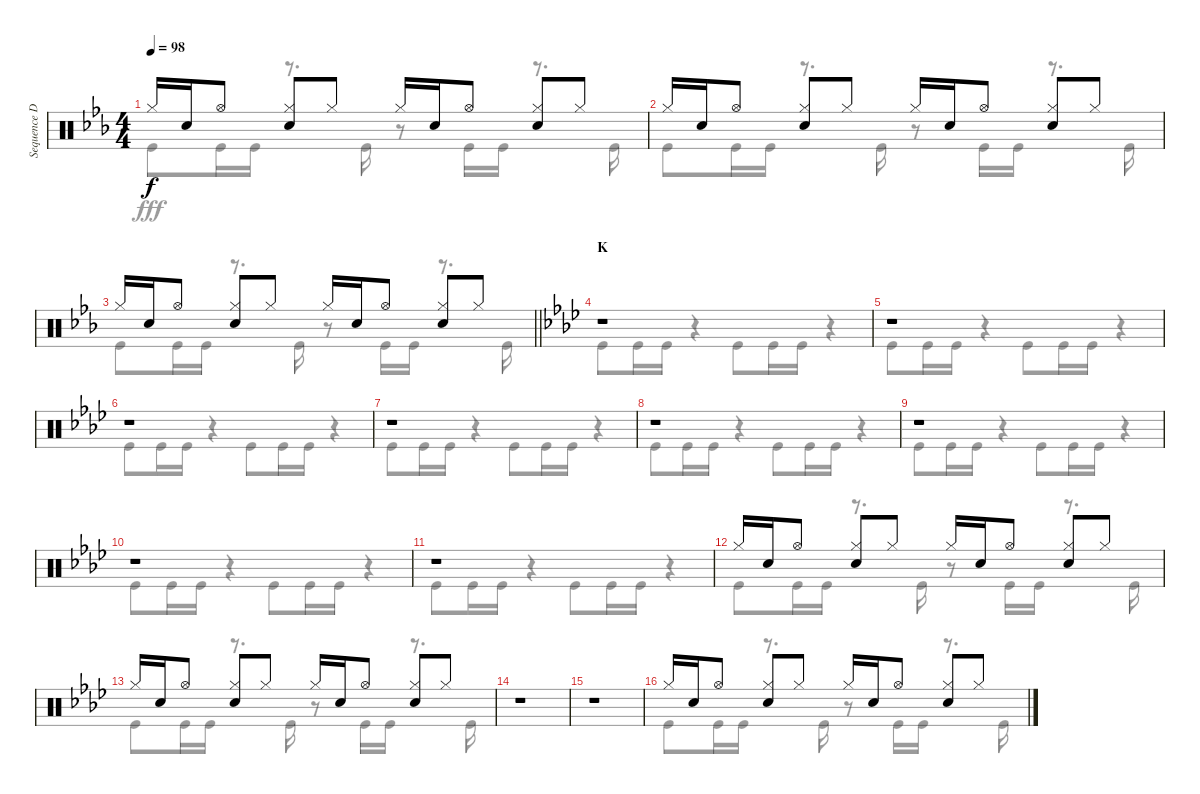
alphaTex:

\track ("Sequence Drums II" "Sequence D") {instrument percussion}
\staff {score}
\articulation defaults
\voice
\ts (4 4)
\tempo 98
\clef neutral
\ks eb "Hi-Hat (closed)".16{dy f} "Snare (hit) 2".16 "Hi-Hat (open)".8
("Hi-Hat (closed)" "Snare (hit) 2").8 "Hi-Hat (closed)".8 "Hi-Hat (closed)".16 "Snare (hit) 2".16 "Hi-Hat (open)".8 ("Hi-Hat (closed)" "Snare (hit) 2").8 "Hi-Hat (closed)".8 |
"Hi-Hat (closed)".16 "Snare (hit) 2".16 "Hi-Hat (open)".8 ("Hi-Hat (closed)" "Snare (hit) 2").8 "Hi-Hat (closed)".8 "Hi-Hat (closed)".16 "Snare (hit) 2".16 "Hi-Hat (open)".8 ("Hi-Hat (closed)" "Snare (hit) 2").8 "Hi-Hat (closed)".8 |
\barLineRight lightlight "Hi-Hat (closed)".16 "Snare (hit) 2".16 "Hi-Hat (open)".8
("Hi-Hat (closed)" "Snare (hit) 2").8 "Hi-Hat (closed)".8 "Hi-Hat (closed)".16 "Snare (hit) 2".16 "Hi-Hat (open)".8 ("Hi-Hat (closed)" "Snare (hit) 2").8 "Hi-Hat (closed)".8 |
\section ("" "K")
\ks ab
r.1 |
r.1 |
r.1 |
r.1 |
r.1 |
r.1 |
r.1 |
r.1 |
"Hi-Hat (closed)".16 "Snare (hit) 2".16 "Hi-Hat (open)".8 ("Hi-Hat (closed)" "Snare (hit) 2").8 "Hi-Hat (closed)".8 "Hi-Hat (closed)".16 "Snare (hit) 2".16 "Hi-Hat (open)".8 ("Hi-Hat (closed)" "Snare (hit) 2").8 "Hi-Hat (closed)".8 |
"Hi-Hat (closed)".16 "Snare (hit) 2".16 "Hi-Hat (open)".8 ("Hi-Hat (closed)" "Snare (hit) 2").8 "Hi-Hat (closed)".8 "Hi-Hat (closed)".16 "Snare (hit) 2".16 "Hi-Hat (open)".8 ("Hi-Hat (closed)" "Snare (hit) 2").8 "Hi-Hat (closed)".8 |
r.1 |
r.1 |
"Hi-Hat (closed)".16 "Snare (hit) 2".16 "Hi-Hat (open)".8 ("Hi-Hat (closed)" "Snare (hit) 2").8 "Hi-Hat (closed)".8 "Hi-Hat (closed)".16 "Snare (hit) 2".16 "Hi-Hat (open)".8 ("Hi-Hat (closed)" "Snare (hit) 2").8 "Hi-Hat (closed)".8
\voice
\clef neutral
\ottava regular
\simile none
\ks eb "Kick (hit)".8{dy fff} "Kick (hit)".16 "Kick (hit)".16
r.8{d} "Kick (hit)".16 r.8 "Kick (hit)".16 "Kick (hit)".16 r.8{d} "Kick (hit)".16 |
"Kick (hit)".8 "Kick (hit)".16 "Kick (hit)".16 r.8{d} "Kick (hit)".16 r.8 "Kick (hit)".16 "Kick (hit)".16 r.8{d} "Kick (hit)".16 |
\barLineRight lightlight "Kick (hit)".8 "Kick (hit)".16 "Kick (hit)".16
r.8{d} "Kick (hit)".16 r.8 "Kick (hit)".16 "Kick (hit)".16 r.8{d} "Kick (hit)".16 |
\ks ab "Kick (hit)".8 "Kick (hit)".16 "Kick (hit)".16
r.4 "Kick (hit)".8 "Kick (hit)".16 "Kick (hit)".16 r.4 |
"Kick (hit)".8 "Kick (hit)".16 "Kick (hit)".16 r.4 "Kick (hit)".8 "Kick (hit)".16 "Kick (hit)".16 r.4 |
"Kick (hit)".8 "Kick (hit)".16 "Kick (hit)".16 r.4 "Kick (hit)".8 "Kick (hit)".16 "Kick (hit)".16 r.4 |
"Kick (hit)".8 "Kick (hit)".16 "Kick (hit)".16 r.4 "Kick (hit)".8 "Kick (hit)".16 "Kick (hit)".16 r.4 |
"Kick (hit)".8 "Kick (hit)".16 "Kick (hit)".16 r.4 "Kick (hit)".8 "Kick (hit)".16 "Kick (hit)".16 r.4 |
"Kick (hit)".8 "Kick (hit)".16 "Kick (hit)".16 r.4 "Kick (hit)".8 "Kick (hit)".16 "Kick (hit)".16 r.4 |
"Kick (hit)".8 "Kick (hit)".16 "Kick (hit)".16 r.4 "Kick (hit)".8 "Kick (hit)".16 "Kick (hit)".16 r.4 |
"Kick (hit)".8 "Kick (hit)".16 "Kick (hit)".16 r.4 "Kick (hit)".8 "Kick (hit)".16 "Kick (hit)".16 r.4 |
"Kick (hit)".8 "Kick (hit)".16 "Kick (hit)".16 r.8{d} "Kick (hit)".16 r.8 "Kick (hit)".16 "Kick (hit)".16 r.8{d} "Kick (hit)".16 |
"Kick (hit)".8 "Kick (hit)".16 "Kick (hit)".16 r.8{d} "Kick (hit)".16 r.8 "Kick (hit)".16 "Kick (hit)".16 r.8{d} "Kick (hit)".16 |
r.1 |
r.1 |
"Kick (hit)".8 "Kick (hit)".16 "Kick (hit)".16 r.8{d} "Kick (hit)".16 r.8 "Kick (hit)".16 "Kick (hit)".16 r.8{d} "Kick (hit)".16
